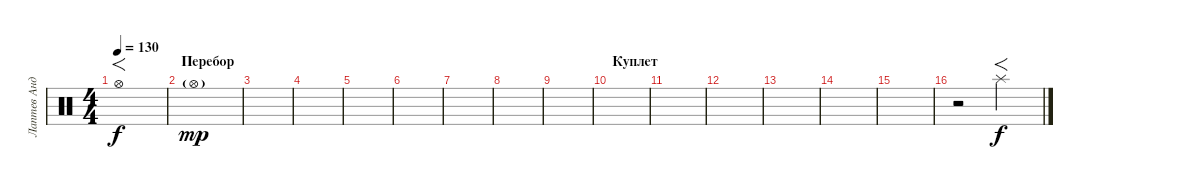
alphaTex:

\track ("Лаптев Андрей" "Лаптев Анд") {instrument percussion}
\staff {score}
\articulation defaults
\ts (4 4)
\tempo 130
\clef neutral
\ks c "Hi-Hat (open)"{tr (46 64)}.1{f dy f}
|
\section ("" "Перебор")
"Hi-Hat (open)"{g}.1{dy mp} |
|
|
|
|
|
|
|
\section ("" "Куплет")
|
|
|
|
|
|
r.2 "Splash (hit)".2{f dy f}
